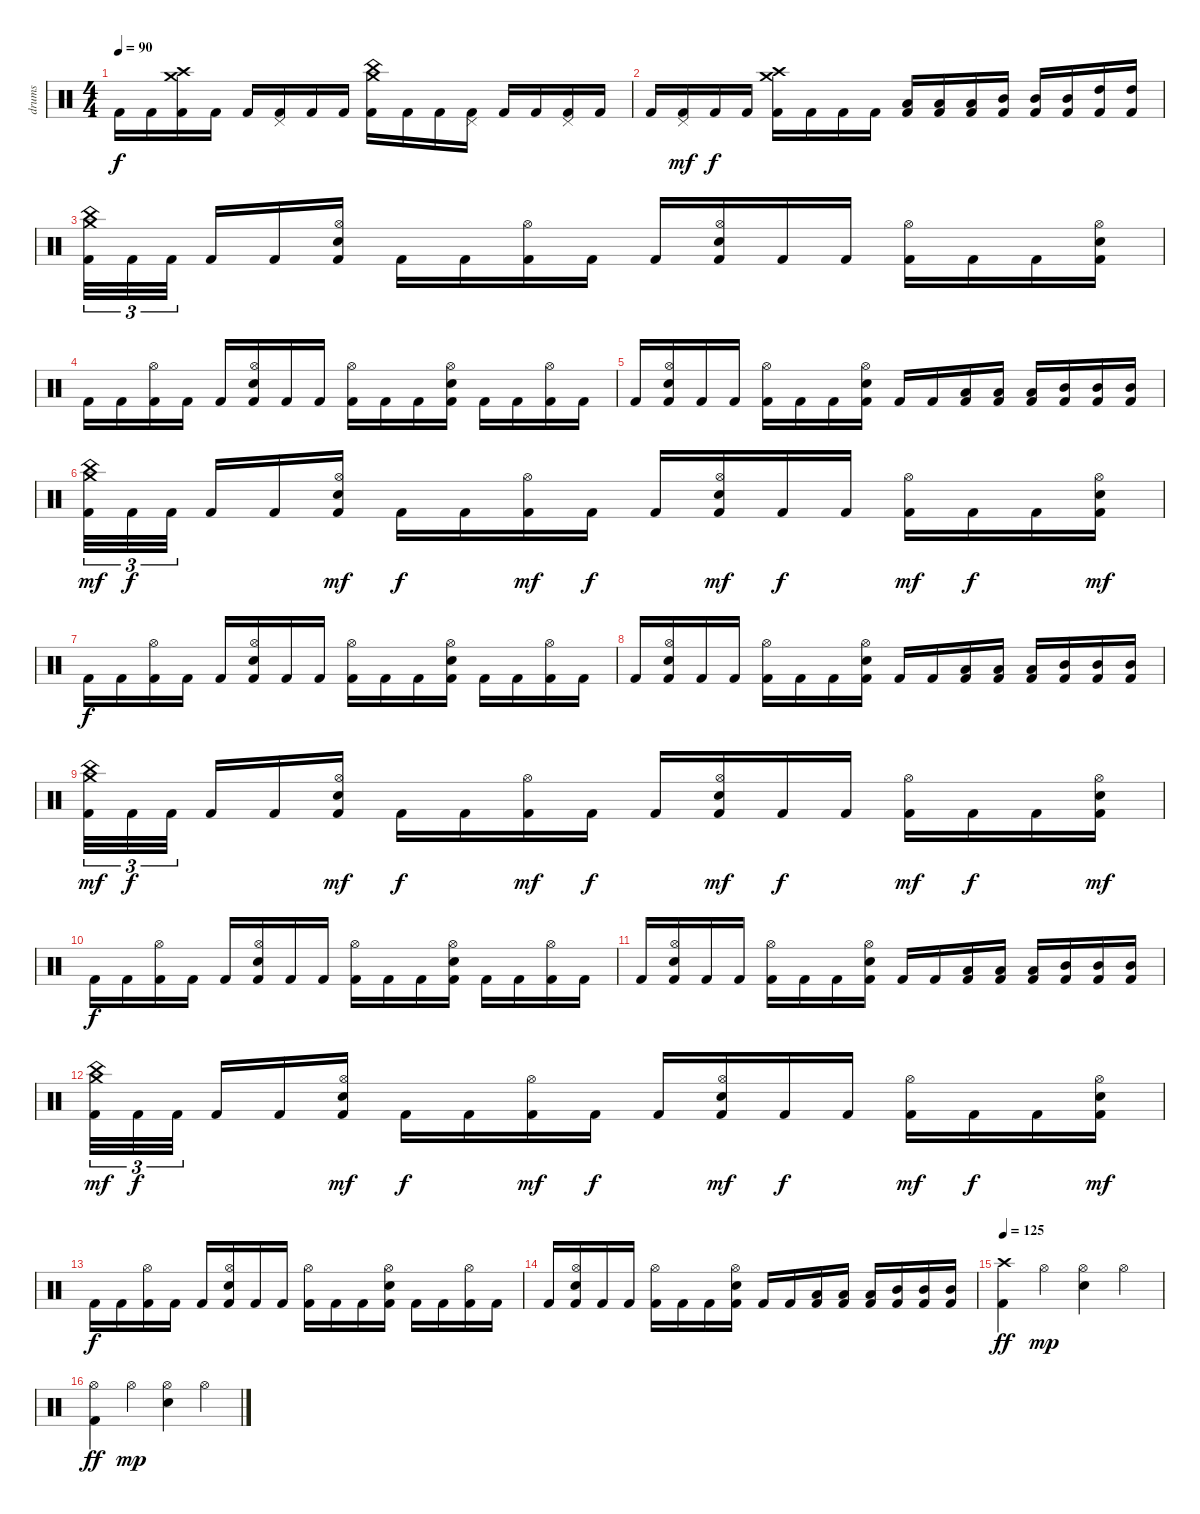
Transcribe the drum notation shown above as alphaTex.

\track ("drums" "drums") {instrument percussion}
\staff {score}
\articulation defaults
\ts (4 4)
\tempo 90
\clef neutral
\ks c "Kick (hit) 2".16{dy f} "Kick (hit) 2".16
("Crash medium (hit)" "Crash high (hit)" "Kick (hit) 2").16 "Kick (hit) 2".16 "Kick (hit) 2".16 ("Pedal Hi-Hat (hit)" "Kick (hit) 2").16 "Kick (hit) 2".16 "Kick (hit) 2".16 ("China (hit)" "Crash medium (hit)" "Kick (hit) 2").16 "Kick (hit) 2".16 "Kick (hit) 2".16 ("Pedal Hi-Hat (hit)" "Kick (hit) 2").16 "Kick (hit) 2".16 "Kick (hit) 2".16 ("Pedal Hi-Hat (hit)" "Kick (hit) 2").16 "Kick (hit) 2".16 |
"Kick (hit) 2".16 ("Pedal Hi-Hat (hit)" "Kick (hit) 2").16{dy mf} "Kick (hit) 2".16{dy f} "Kick (hit) 2".16 ("Crash medium (hit)" "Crash high (hit)" "Kick (hit) 2").16 "Kick (hit) 2".16 "Kick (hit) 2".16 "Kick (hit) 2".16 ("Low Tom (hit)" "Kick (hit) 2").16 ("Low Tom (hit)" "Kick (hit) 2").16 ("Low Tom (hit)" "Kick (hit) 2").16 ("Mid Tom (hit)" "Kick (hit) 2").16 ("Mid Tom (hit)" "Kick (hit) 2").16 ("Mid Tom (hit)" "Kick (hit) 2").16 ("High Tom (hit)" "Kick (hit) 2").16 ("High Tom (hit)" "Kick (hit) 2").16 |
("China (hit)" "Crash medium (hit)" "Kick (hit) 2").32{tu (3 2)} "Kick (hit) 2".32{tu (3 2)} "Kick (hit) 2".32{tu (3 2) beam splitsecondary} "Kick (hit) 2".16 "Kick (hit) 2".16 ("Hi-Hat (open)" "Snare (hit) 2" "Kick (hit) 2").16 "Kick (hit) 2".16 "Kick (hit) 2".16 ("Hi-Hat (open)" "Kick (hit) 2").16 "Kick (hit) 2".16 "Kick (hit) 2".16 ("Hi-Hat (open)" "Snare (hit) 2" "Kick (hit) 2").16 "Kick (hit) 2".16 "Kick (hit) 2".16 ("Hi-Hat (open)" "Kick (hit) 2").16 "Kick (hit) 2".16 "Kick (hit) 2".16 ("Hi-Hat (open)" "Snare (hit) 2" "Kick (hit) 2").16 |
"Kick (hit) 2".16 "Kick (hit) 2".16 ("Hi-Hat (open)" "Kick (hit) 2").16 "Kick (hit) 2".16 "Kick (hit) 2".16 ("Hi-Hat (open)" "Snare (hit) 2" "Kick (hit) 2").16 "Kick (hit) 2".16 "Kick (hit) 2".16 ("Hi-Hat (open)" "Kick (hit) 2").16 "Kick (hit) 2".16 "Kick (hit) 2".16 ("Hi-Hat (open)" "Snare (hit) 2" "Kick (hit) 2").16 "Kick (hit) 2".16 "Kick (hit) 2".16 ("Hi-Hat (open)" "Kick (hit) 2").16 "Kick (hit) 2".16 |
"Kick (hit) 2".16 ("Hi-Hat (open)" "Snare (hit) 2" "Kick (hit) 2").16 "Kick (hit) 2".16 "Kick (hit) 2".16 ("Hi-Hat (open)" "Kick (hit) 2").16 "Kick (hit) 2".16 "Kick (hit) 2".16 ("Hi-Hat (open)" "Snare (hit) 2" "Kick (hit) 2").16 "Kick (hit) 2".16 "Kick (hit) 2".16 ("Low Tom (hit)" "Kick (hit) 2").16 ("Low Tom (hit)" "Kick (hit) 2").16 ("Low Tom (hit)" "Kick (hit) 2").16 ("Mid Tom (hit)" "Kick (hit) 2").16 ("Mid Tom (hit)" "Kick (hit) 2").16 ("Mid Tom (hit)" "Kick (hit) 2").16 |
("China (hit)" "Crash medium (hit)" "Kick (hit) 2").32{tu (3 2) dy mf} "Kick (hit) 2".32{tu (3 2) dy f} "Kick (hit) 2".32{tu (3 2) beam splitsecondary} "Kick (hit) 2".16 "Kick (hit) 2".16 ("Hi-Hat (open)" "Snare (hit) 2" "Kick (hit) 2").16{dy mf} "Kick (hit) 2".16{dy f} "Kick (hit) 2".16 ("Hi-Hat (open)" "Kick (hit) 2").16{dy mf} "Kick (hit) 2".16{dy f} "Kick (hit) 2".16 ("Hi-Hat (open)" "Snare (hit) 2" "Kick (hit) 2").16{dy mf} "Kick (hit) 2".16{dy f} "Kick (hit) 2".16 ("Hi-Hat (open)" "Kick (hit) 2").16{dy mf} "Kick (hit) 2".16{dy f} "Kick (hit) 2".16 ("Hi-Hat (open)" "Snare (hit) 2" "Kick (hit) 2").16{dy mf} |
"Kick (hit) 2".16{dy f} "Kick (hit) 2".16 ("Hi-Hat (open)" "Kick (hit) 2").16 "Kick (hit) 2".16 "Kick (hit) 2".16 ("Hi-Hat (open)" "Snare (hit) 2" "Kick (hit) 2").16 "Kick (hit) 2".16 "Kick (hit) 2".16 ("Hi-Hat (open)" "Kick (hit) 2").16 "Kick (hit) 2".16 "Kick (hit) 2".16 ("Hi-Hat (open)" "Snare (hit) 2" "Kick (hit) 2").16 "Kick (hit) 2".16 "Kick (hit) 2".16 ("Hi-Hat (open)" "Kick (hit) 2").16 "Kick (hit) 2".16 |
"Kick (hit) 2".16 ("Hi-Hat (open)" "Snare (hit) 2" "Kick (hit) 2").16 "Kick (hit) 2".16 "Kick (hit) 2".16 ("Hi-Hat (open)" "Kick (hit) 2").16 "Kick (hit) 2".16 "Kick (hit) 2".16 ("Hi-Hat (open)" "Snare (hit) 2" "Kick (hit) 2").16 "Kick (hit) 2".16 "Kick (hit) 2".16 ("Low Tom (hit)" "Kick (hit) 2").16 ("Low Tom (hit)" "Kick (hit) 2").16 ("Low Tom (hit)" "Kick (hit) 2").16 ("Mid Tom (hit)" "Kick (hit) 2").16 ("Mid Tom (hit)" "Kick (hit) 2").16 ("Mid Tom (hit)" "Kick (hit) 2").16 |
("China (hit)" "Crash medium (hit)" "Kick (hit) 2").32{tu (3 2) dy mf} "Kick (hit) 2".32{tu (3 2) dy f} "Kick (hit) 2".32{tu (3 2) beam splitsecondary} "Kick (hit) 2".16 "Kick (hit) 2".16 ("Hi-Hat (open)" "Snare (hit) 2" "Kick (hit) 2").16{dy mf} "Kick (hit) 2".16{dy f} "Kick (hit) 2".16 ("Hi-Hat (open)" "Kick (hit) 2").16{dy mf} "Kick (hit) 2".16{dy f} "Kick (hit) 2".16 ("Hi-Hat (open)" "Snare (hit) 2" "Kick (hit) 2").16{dy mf} "Kick (hit) 2".16{dy f} "Kick (hit) 2".16 ("Hi-Hat (open)" "Kick (hit) 2").16{dy mf} "Kick (hit) 2".16{dy f} "Kick (hit) 2".16 ("Hi-Hat (open)" "Snare (hit) 2" "Kick (hit) 2").16{dy mf} |
"Kick (hit) 2".16{dy f} "Kick (hit) 2".16 ("Hi-Hat (open)" "Kick (hit) 2").16 "Kick (hit) 2".16 "Kick (hit) 2".16 ("Hi-Hat (open)" "Snare (hit) 2" "Kick (hit) 2").16 "Kick (hit) 2".16 "Kick (hit) 2".16 ("Hi-Hat (open)" "Kick (hit) 2").16 "Kick (hit) 2".16 "Kick (hit) 2".16 ("Hi-Hat (open)" "Snare (hit) 2" "Kick (hit) 2").16 "Kick (hit) 2".16 "Kick (hit) 2".16 ("Hi-Hat (open)" "Kick (hit) 2").16 "Kick (hit) 2".16 |
"Kick (hit) 2".16 ("Hi-Hat (open)" "Snare (hit) 2" "Kick (hit) 2").16 "Kick (hit) 2".16 "Kick (hit) 2".16 ("Hi-Hat (open)" "Kick (hit) 2").16 "Kick (hit) 2".16 "Kick (hit) 2".16 ("Hi-Hat (open)" "Snare (hit) 2" "Kick (hit) 2").16 "Kick (hit) 2".16 "Kick (hit) 2".16 ("Low Tom (hit)" "Kick (hit) 2").16 ("Low Tom (hit)" "Kick (hit) 2").16 ("Low Tom (hit)" "Kick (hit) 2").16 ("Mid Tom (hit)" "Kick (hit) 2").16 ("Mid Tom (hit)" "Kick (hit) 2").16 ("Mid Tom (hit)" "Kick (hit) 2").16 |
("China (hit)" "Crash medium (hit)" "Kick (hit) 2").32{tu (3 2) dy mf} "Kick (hit) 2".32{tu (3 2) dy f} "Kick (hit) 2".32{tu (3 2) beam splitsecondary} "Kick (hit) 2".16 "Kick (hit) 2".16 ("Hi-Hat (open)" "Snare (hit) 2" "Kick (hit) 2").16{dy mf} "Kick (hit) 2".16{dy f} "Kick (hit) 2".16 ("Hi-Hat (open)" "Kick (hit) 2").16{dy mf} "Kick (hit) 2".16{dy f} "Kick (hit) 2".16 ("Hi-Hat (open)" "Snare (hit) 2" "Kick (hit) 2").16{dy mf} "Kick (hit) 2".16{dy f} "Kick (hit) 2".16 ("Hi-Hat (open)" "Kick (hit) 2").16{dy mf} "Kick (hit) 2".16{dy f} "Kick (hit) 2".16 ("Hi-Hat (open)" "Snare (hit) 2" "Kick (hit) 2").16{dy mf} |
"Kick (hit) 2".16{dy f} "Kick (hit) 2".16 ("Hi-Hat (open)" "Kick (hit) 2").16 "Kick (hit) 2".16 "Kick (hit) 2".16 ("Hi-Hat (open)" "Snare (hit) 2" "Kick (hit) 2").16 "Kick (hit) 2".16 "Kick (hit) 2".16 ("Hi-Hat (open)" "Kick (hit) 2").16 "Kick (hit) 2".16 "Kick (hit) 2".16 ("Hi-Hat (open)" "Snare (hit) 2" "Kick (hit) 2").16 "Kick (hit) 2".16 "Kick (hit) 2".16 ("Hi-Hat (open)" "Kick (hit) 2").16 "Kick (hit) 2".16 |
"Kick (hit) 2".16 ("Hi-Hat (open)" "Snare (hit) 2" "Kick (hit) 2").16 "Kick (hit) 2".16 "Kick (hit) 2".16 ("Hi-Hat (open)" "Kick (hit) 2").16 "Kick (hit) 2".16 "Kick (hit) 2".16 ("Hi-Hat (open)" "Snare (hit) 2" "Kick (hit) 2").16 "Kick (hit) 2".16 "Kick (hit) 2".16 ("Low Tom (hit)" "Kick (hit) 2").16 ("Low Tom (hit)" "Kick (hit) 2").16 ("Low Tom (hit)" "Kick (hit) 2").16 ("Mid Tom (hit)" "Kick (hit) 2").16 ("Mid Tom (hit)" "Kick (hit) 2").16 ("Mid Tom (hit)" "Kick (hit) 2").16 |
\tempo 125
("Crash high (hit)" "Kick (hit) 2").4{dy ff} "Hi-Hat (open)".4{dy mp} ("Hi-Hat (open)" "Snare (hit) 2").4 "Hi-Hat (open)".4 |
("Hi-Hat (open)" "Kick (hit) 2").4{dy ff} "Hi-Hat (open)".4{dy mp} ("Hi-Hat (open)" "Snare (hit) 2").4 "Hi-Hat (open)".4
